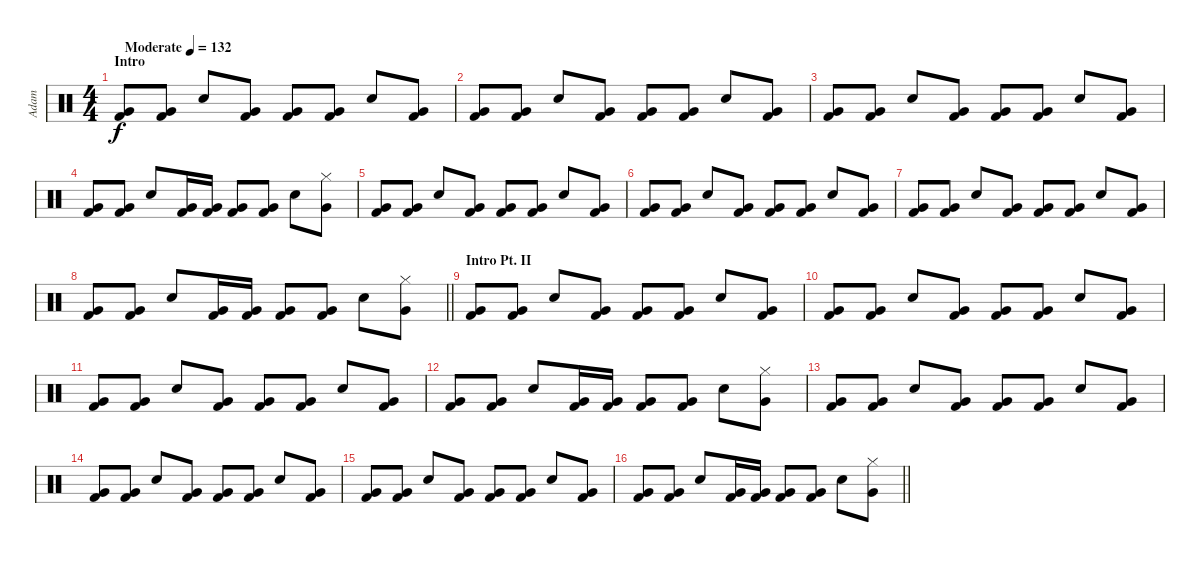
\track ("Adam" "Adam") {instrument percussion}
\staff {score}
\articulation defaults
\ts (4 4)
\section ("" "Intro")
\tempo (132 "Moderate")
\clef neutral
\ks c
("Very Low Tom (hit)" "Kick (hit) 2").8{dy f} ("Very Low Tom (hit)" "Kick (hit) 2").8 "Snare (hit) 2".8 ("Very Low Tom (hit)" "Kick (hit) 2").8 ("Very Low Tom (hit)" "Kick (hit) 2").8 ("Very Low Tom (hit)" "Kick (hit) 2").8 "Snare (hit) 2".8 ("Very Low Tom (hit)" "Kick (hit) 2").8 |
("Very Low Tom (hit)" "Kick (hit) 2").8 ("Very Low Tom (hit)" "Kick (hit) 2").8 "Snare (hit) 2".8 ("Very Low Tom (hit)" "Kick (hit) 2").8 ("Very Low Tom (hit)" "Kick (hit) 2").8 ("Very Low Tom (hit)" "Kick (hit) 2").8 "Snare (hit) 2".8 ("Very Low Tom (hit)" "Kick (hit) 2").8 |
("Very Low Tom (hit)" "Kick (hit) 2").8 ("Very Low Tom (hit)" "Kick (hit) 2").8 "Snare (hit) 2".8 ("Very Low Tom (hit)" "Kick (hit) 2").8 ("Very Low Tom (hit)" "Kick (hit) 2").8 ("Very Low Tom (hit)" "Kick (hit) 2").8 "Snare (hit) 2".8 ("Very Low Tom (hit)" "Kick (hit) 2").8 |
("Very Low Tom (hit)" "Kick (hit) 2").8 ("Very Low Tom (hit)" "Kick (hit) 2").8 "Snare (hit) 2".8 ("Very Low Tom (hit)" "Kick (hit) 2").16 ("Very Low Tom (hit)" "Kick (hit) 2").16 ("Very Low Tom (hit)" "Kick (hit) 2").8 ("Very Low Tom (hit)" "Kick (hit) 2").8 "Snare (hit) 2".8 ("Hi-Hat (closed)" "Very Low Tom (hit)").8 |
("Very Low Tom (hit)" "Kick (hit) 2").8 ("Very Low Tom (hit)" "Kick (hit) 2").8 "Snare (hit) 2".8 ("Very Low Tom (hit)" "Kick (hit) 2").8 ("Very Low Tom (hit)" "Kick (hit) 2").8 ("Very Low Tom (hit)" "Kick (hit) 2").8 "Snare (hit) 2".8 ("Very Low Tom (hit)" "Kick (hit) 2").8 |
("Very Low Tom (hit)" "Kick (hit) 2").8 ("Very Low Tom (hit)" "Kick (hit) 2").8 "Snare (hit) 2".8 ("Very Low Tom (hit)" "Kick (hit) 2").8 ("Very Low Tom (hit)" "Kick (hit) 2").8 ("Very Low Tom (hit)" "Kick (hit) 2").8 "Snare (hit) 2".8 ("Very Low Tom (hit)" "Kick (hit) 2").8 |
("Very Low Tom (hit)" "Kick (hit) 2").8 ("Very Low Tom (hit)" "Kick (hit) 2").8 "Snare (hit) 2".8 ("Very Low Tom (hit)" "Kick (hit) 2").8 ("Very Low Tom (hit)" "Kick (hit) 2").8 ("Very Low Tom (hit)" "Kick (hit) 2").8 "Snare (hit) 2".8 ("Very Low Tom (hit)" "Kick (hit) 2").8 |
\barLineRight lightlight
("Very Low Tom (hit)" "Kick (hit) 2").8 ("Very Low Tom (hit)" "Kick (hit) 2").8 "Snare (hit) 2".8 ("Very Low Tom (hit)" "Kick (hit) 2").16 ("Very Low Tom (hit)" "Kick (hit) 2").16 ("Very Low Tom (hit)" "Kick (hit) 2").8 ("Very Low Tom (hit)" "Kick (hit) 2").8 "Snare (hit) 2".8 ("Hi-Hat (closed)" "Very Low Tom (hit)").8 |
\section ("" "Intro Pt. II")
("Very Low Tom (hit)" "Kick (hit) 2").8 ("Very Low Tom (hit)" "Kick (hit) 2").8 "Snare (hit) 2".8 ("Very Low Tom (hit)" "Kick (hit) 2").8 ("Very Low Tom (hit)" "Kick (hit) 2").8 ("Very Low Tom (hit)" "Kick (hit) 2").8 "Snare (hit) 2".8 ("Very Low Tom (hit)" "Kick (hit) 2").8 |
("Very Low Tom (hit)" "Kick (hit) 2").8 ("Very Low Tom (hit)" "Kick (hit) 2").8 "Snare (hit) 2".8 ("Very Low Tom (hit)" "Kick (hit) 2").8 ("Very Low Tom (hit)" "Kick (hit) 2").8 ("Very Low Tom (hit)" "Kick (hit) 2").8 "Snare (hit) 2".8 ("Very Low Tom (hit)" "Kick (hit) 2").8 |
("Very Low Tom (hit)" "Kick (hit) 2").8 ("Very Low Tom (hit)" "Kick (hit) 2").8 "Snare (hit) 2".8 ("Very Low Tom (hit)" "Kick (hit) 2").8 ("Very Low Tom (hit)" "Kick (hit) 2").8 ("Very Low Tom (hit)" "Kick (hit) 2").8 "Snare (hit) 2".8 ("Very Low Tom (hit)" "Kick (hit) 2").8 |
("Very Low Tom (hit)" "Kick (hit) 2").8 ("Very Low Tom (hit)" "Kick (hit) 2").8 "Snare (hit) 2".8 ("Very Low Tom (hit)" "Kick (hit) 2").16 ("Very Low Tom (hit)" "Kick (hit) 2").16 ("Very Low Tom (hit)" "Kick (hit) 2").8 ("Very Low Tom (hit)" "Kick (hit) 2").8 "Snare (hit) 2".8 ("Hi-Hat (closed)" "Very Low Tom (hit)").8 |
("Very Low Tom (hit)" "Kick (hit) 2").8 ("Very Low Tom (hit)" "Kick (hit) 2").8 "Snare (hit) 2".8 ("Very Low Tom (hit)" "Kick (hit) 2").8 ("Very Low Tom (hit)" "Kick (hit) 2").8 ("Very Low Tom (hit)" "Kick (hit) 2").8 "Snare (hit) 2".8 ("Very Low Tom (hit)" "Kick (hit) 2").8 |
("Very Low Tom (hit)" "Kick (hit) 2").8 ("Very Low Tom (hit)" "Kick (hit) 2").8 "Snare (hit) 2".8 ("Very Low Tom (hit)" "Kick (hit) 2").8 ("Very Low Tom (hit)" "Kick (hit) 2").8 ("Very Low Tom (hit)" "Kick (hit) 2").8 "Snare (hit) 2".8 ("Very Low Tom (hit)" "Kick (hit) 2").8 |
("Very Low Tom (hit)" "Kick (hit) 2").8 ("Very Low Tom (hit)" "Kick (hit) 2").8 "Snare (hit) 2".8 ("Very Low Tom (hit)" "Kick (hit) 2").8 ("Very Low Tom (hit)" "Kick (hit) 2").8 ("Very Low Tom (hit)" "Kick (hit) 2").8 "Snare (hit) 2".8 ("Very Low Tom (hit)" "Kick (hit) 2").8 |
\barLineRight lightlight
("Very Low Tom (hit)" "Kick (hit) 2").8 ("Very Low Tom (hit)" "Kick (hit) 2").8 "Snare (hit) 2".8 ("Very Low Tom (hit)" "Kick (hit) 2").16 ("Very Low Tom (hit)" "Kick (hit) 2").16 ("Very Low Tom (hit)" "Kick (hit) 2").8 ("Very Low Tom (hit)" "Kick (hit) 2").8 "Snare (hit) 2".8 ("Hi-Hat (closed)" "Very Low Tom (hit)").8
